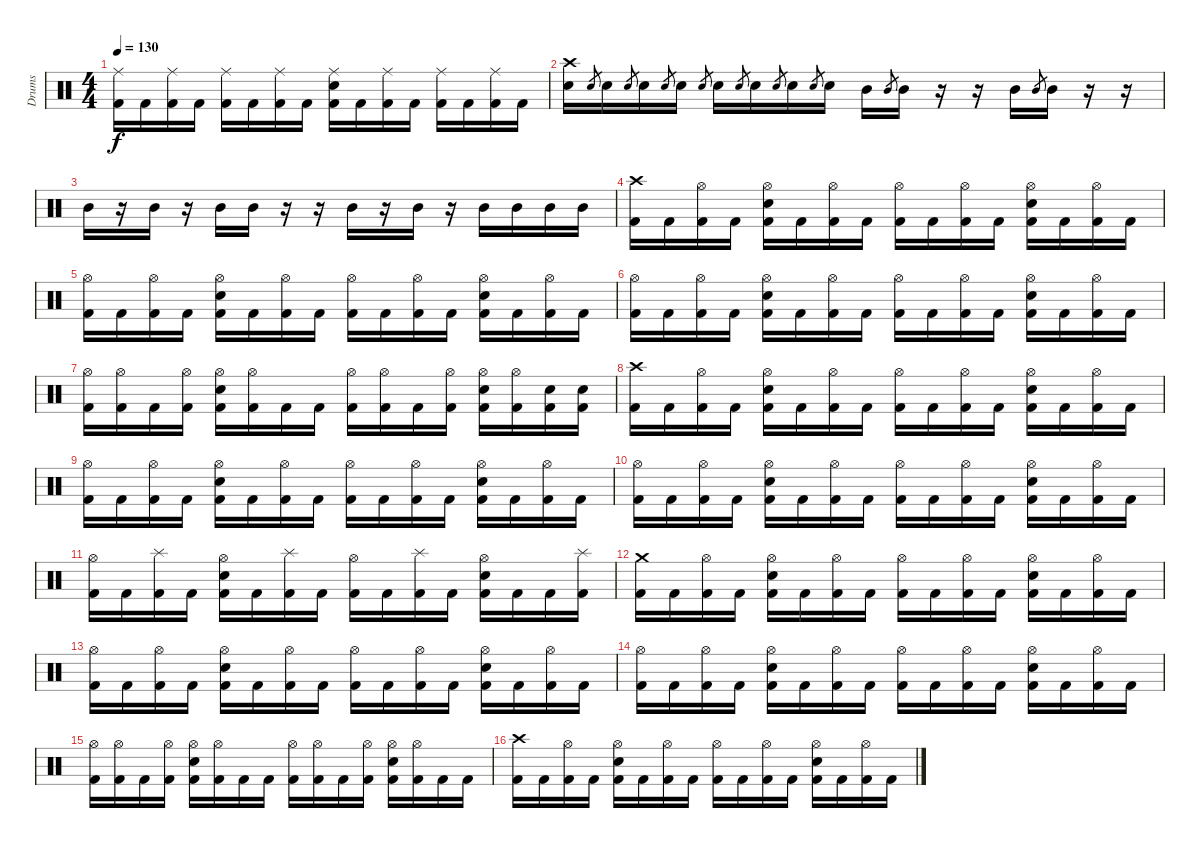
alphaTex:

\track ("Drums" "Drums") {instrument percussion}
\staff {score}
\articulation defaults
\ts (4 4)
\tempo 130
\clef neutral
\ks c
("Ride (middle)" "Kick (hit) 2").16{dy f} "Kick (hit) 2".16 ("Ride (middle)" "Kick (hit) 2").16 "Kick (hit) 2".16 ("Ride (middle)" "Kick (hit) 2").16 "Kick (hit) 2".16 ("Ride (middle)" "Kick (hit) 2").16 "Kick (hit) 2".16 ("Ride (middle)" "Electric Snare (hit)" "Kick (hit) 2").16 "Kick (hit) 2".16 ("Ride (middle)" "Kick (hit) 2").16 "Kick (hit) 2".16 ("Ride (middle)" "Kick (hit) 2").16 "Kick (hit) 2".16 ("Ride (middle)" "Kick (hit) 2").16 "Kick (hit) 2".16 |
("Crash high (hit)" "Electric Snare (hit)").16 "Electric Snare (hit)".8{gr} "Electric Snare (hit)".16 "Electric Snare (hit)".8{gr} "Electric Snare (hit)".16 "Electric Snare (hit)".8{gr} "Electric Snare (hit)".16 "Electric Snare (hit)".8{gr} "Electric Snare (hit)".16 "Electric Snare (hit)".8{gr} "Electric Snare (hit)".16 "Electric Snare (hit)".8{gr} "Electric Snare (hit)".16 "Electric Snare (hit)".8{gr} "Electric Snare (hit)".16 "Mid Tom (hit)".16 "Mid Tom (hit)".8{gr} "Mid Tom (hit)".16 r.16 r.16 "Mid Tom (hit)".16 "Mid Tom (hit)".8{gr} "Mid Tom (hit)".16 r.16 r.16 |
"Mid Tom (hit)".16 r.16 "Mid Tom (hit)".16 r.16 "Mid Tom (hit)".16 "Mid Tom (hit)".16 r.16 r.16 "Mid Tom (hit)".16 r.16 "Mid Tom (hit)".16 r.16 "Mid Tom (hit)".16 "Mid Tom (hit)".16 "Mid Tom (hit)".16 "Mid Tom (hit)".16 |
("Crash high (hit)" "Kick (hit) 2").16 "Kick (hit) 2".16 ("Hi-Hat (open)" "Kick (hit) 2").16 "Kick (hit) 2".16 ("Hi-Hat (open)" "Electric Snare (hit)" "Kick (hit) 2").16 "Kick (hit) 2".16 ("Hi-Hat (open)" "Kick (hit) 2").16 "Kick (hit) 2".16 ("Hi-Hat (open)" "Kick (hit) 2").16 "Kick (hit) 2".16 ("Hi-Hat (open)" "Kick (hit) 2").16 "Kick (hit) 2".16 ("Hi-Hat (open)" "Electric Snare (hit)" "Kick (hit) 2").16 "Kick (hit) 2".16 ("Hi-Hat (open)" "Kick (hit) 2").16 "Kick (hit) 2".16 |
("Hi-Hat (open)" "Kick (hit) 2").16 "Kick (hit) 2".16 ("Hi-Hat (open)" "Kick (hit) 2").16 "Kick (hit) 2".16 ("Hi-Hat (open)" "Electric Snare (hit)" "Kick (hit) 2").16 "Kick (hit) 2".16 ("Hi-Hat (open)" "Kick (hit) 2").16 "Kick (hit) 2".16 ("Hi-Hat (open)" "Kick (hit) 2").16 "Kick (hit) 2".16 ("Hi-Hat (open)" "Kick (hit) 2").16 "Kick (hit) 2".16 ("Hi-Hat (open)" "Electric Snare (hit)" "Kick (hit) 2").16 "Kick (hit) 2".16 ("Hi-Hat (open)" "Kick (hit) 2").16 "Kick (hit) 2".16 |
("Hi-Hat (open)" "Kick (hit) 2").16 "Kick (hit) 2".16 ("Hi-Hat (open)" "Kick (hit) 2").16 "Kick (hit) 2".16 ("Hi-Hat (open)" "Electric Snare (hit)" "Kick (hit) 2").16 "Kick (hit) 2".16 ("Hi-Hat (open)" "Kick (hit) 2").16 "Kick (hit) 2".16 ("Hi-Hat (open)" "Kick (hit) 2").16 "Kick (hit) 2".16 ("Hi-Hat (open)" "Kick (hit) 2").16 "Kick (hit) 2".16 ("Hi-Hat (open)" "Electric Snare (hit)" "Kick (hit) 2").16 "Kick (hit) 2".16 ("Hi-Hat (open)" "Kick (hit) 2").16 "Kick (hit) 2".16 |
("Hi-Hat (open)" "Kick (hit) 2").16 ("Hi-Hat (open)" "Kick (hit) 2").16 "Kick (hit) 2".16 ("Hi-Hat (open)" "Kick (hit) 2").16 ("Hi-Hat (open)" "Electric Snare (hit)" "Kick (hit) 2").16 ("Hi-Hat (open)" "Kick (hit) 2").16 "Kick (hit) 2".16 "Kick (hit) 2".16 ("Hi-Hat (open)" "Kick (hit) 2").16 ("Hi-Hat (open)" "Kick (hit) 2").16 "Kick (hit) 2".16 ("Hi-Hat (open)" "Kick (hit) 2").16 ("Hi-Hat (open)" "Electric Snare (hit)" "Kick (hit) 2").16 ("Hi-Hat (open)" "Kick (hit) 2").16 ("Electric Snare (hit)" "Kick (hit) 2").16 ("Electric Snare (hit)" "Kick (hit) 2").16 |
("Crash high (hit)" "Kick (hit) 2").16 "Kick (hit) 2".16 ("Hi-Hat (open)" "Kick (hit) 2").16 "Kick (hit) 2".16 ("Hi-Hat (open)" "Electric Snare (hit)" "Kick (hit) 2").16 "Kick (hit) 2".16 ("Hi-Hat (open)" "Kick (hit) 2").16 "Kick (hit) 2".16 ("Hi-Hat (open)" "Kick (hit) 2").16 "Kick (hit) 2".16 ("Hi-Hat (open)" "Kick (hit) 2").16 "Kick (hit) 2".16 ("Hi-Hat (open)" "Electric Snare (hit)" "Kick (hit) 2").16 "Kick (hit) 2".16 ("Hi-Hat (open)" "Kick (hit) 2").16 "Kick (hit) 2".16 |
("Hi-Hat (open)" "Kick (hit) 2").16 "Kick (hit) 2".16 ("Hi-Hat (open)" "Kick (hit) 2").16 "Kick (hit) 2".16 ("Hi-Hat (open)" "Electric Snare (hit)" "Kick (hit) 2").16 "Kick (hit) 2".16 ("Hi-Hat (open)" "Kick (hit) 2").16 "Kick (hit) 2".16 ("Hi-Hat (open)" "Kick (hit) 2").16 "Kick (hit) 2".16 ("Hi-Hat (open)" "Kick (hit) 2").16 "Kick (hit) 2".16 ("Hi-Hat (open)" "Electric Snare (hit)" "Kick (hit) 2").16 "Kick (hit) 2".16 ("Hi-Hat (open)" "Kick (hit) 2").16 "Kick (hit) 2".16 |
("Hi-Hat (open)" "Kick (hit) 2").16 "Kick (hit) 2".16 ("Hi-Hat (open)" "Kick (hit) 2").16 "Kick (hit) 2".16 ("Hi-Hat (open)" "Electric Snare (hit)" "Kick (hit) 2").16 "Kick (hit) 2".16 ("Hi-Hat (open)" "Kick (hit) 2").16 "Kick (hit) 2".16 ("Hi-Hat (open)" "Kick (hit) 2").16 "Kick (hit) 2".16 ("Hi-Hat (open)" "Kick (hit) 2").16 "Kick (hit) 2".16 ("Hi-Hat (open)" "Electric Snare (hit)" "Kick (hit) 2").16 "Kick (hit) 2".16 ("Hi-Hat (open)" "Kick (hit) 2").16 "Kick (hit) 2".16 |
("Hi-Hat (open)" "Kick (hit) 2").16 "Kick (hit) 2".16 ("Splash (hit)" "Kick (hit) 2").16 "Kick (hit) 2".16 ("Hi-Hat (open)" "Electric Snare (hit)" "Kick (hit) 2").16 "Kick (hit) 2".16 ("Splash (hit)" "Kick (hit) 2").16 "Kick (hit) 2".16 ("Hi-Hat (open)" "Kick (hit) 2").16 "Kick (hit) 2".16 ("Splash (hit)" "Kick (hit) 2").16 "Kick (hit) 2".16 ("Hi-Hat (open)" "Electric Snare (hit)" "Kick (hit) 2").16 "Kick (hit) 2".16 "Kick (hit) 2".16 ("Splash (hit)" "Kick (hit) 2").16 |
("Crash medium (hit)" "Kick (hit) 2").16 "Kick (hit) 2".16 ("Hi-Hat (open)" "Kick (hit) 2").16 "Kick (hit) 2".16 ("Hi-Hat (open)" "Electric Snare (hit)" "Kick (hit) 2").16 "Kick (hit) 2".16 ("Hi-Hat (open)" "Kick (hit) 2").16 "Kick (hit) 2".16 ("Hi-Hat (open)" "Kick (hit) 2").16 "Kick (hit) 2".16 ("Hi-Hat (open)" "Kick (hit) 2").16 "Kick (hit) 2".16 ("Hi-Hat (open)" "Electric Snare (hit)" "Kick (hit) 2").16 "Kick (hit) 2".16 ("Hi-Hat (open)" "Kick (hit) 2").16 "Kick (hit) 2".16 |
("Hi-Hat (open)" "Kick (hit) 2").16 "Kick (hit) 2".16 ("Hi-Hat (open)" "Kick (hit) 2").16 "Kick (hit) 2".16 ("Hi-Hat (open)" "Electric Snare (hit)" "Kick (hit) 2").16 "Kick (hit) 2".16 ("Hi-Hat (open)" "Kick (hit) 2").16 "Kick (hit) 2".16 ("Hi-Hat (open)" "Kick (hit) 2").16 "Kick (hit) 2".16 ("Hi-Hat (open)" "Kick (hit) 2").16 "Kick (hit) 2".16 ("Hi-Hat (open)" "Electric Snare (hit)" "Kick (hit) 2").16 "Kick (hit) 2".16 ("Hi-Hat (open)" "Kick (hit) 2").16 "Kick (hit) 2".16 |
("Hi-Hat (open)" "Kick (hit) 2").16 "Kick (hit) 2".16 ("Hi-Hat (open)" "Kick (hit) 2").16 "Kick (hit) 2".16 ("Hi-Hat (open)" "Electric Snare (hit)" "Kick (hit) 2").16 "Kick (hit) 2".16 ("Hi-Hat (open)" "Kick (hit) 2").16 "Kick (hit) 2".16 ("Hi-Hat (open)" "Kick (hit) 2").16 "Kick (hit) 2".16 ("Hi-Hat (open)" "Kick (hit) 2").16 "Kick (hit) 2".16 ("Hi-Hat (open)" "Electric Snare (hit)" "Kick (hit) 2").16 "Kick (hit) 2".16 ("Hi-Hat (open)" "Kick (hit) 2").16 "Kick (hit) 2".16 |
("Hi-Hat (open)" "Kick (hit) 2").16 ("Hi-Hat (open)" "Kick (hit) 2").16 "Kick (hit) 2".16 ("Hi-Hat (open)" "Kick (hit) 2").16 ("Hi-Hat (open)" "Electric Snare (hit)" "Kick (hit) 2").16 ("Hi-Hat (open)" "Kick (hit) 2").16 "Kick (hit) 2".16 "Kick (hit) 2".16 ("Hi-Hat (open)" "Kick (hit) 2").16 ("Hi-Hat (open)" "Kick (hit) 2").16 "Kick (hit) 2".16 ("Hi-Hat (open)" "Kick (hit) 2").16 ("Hi-Hat (open)" "Electric Snare (hit)" "Kick (hit) 2").16 ("Hi-Hat (open)" "Kick (hit) 2").16 "Kick (hit) 2".16 "Kick (hit) 2".16 |
("Crash high (hit)" "Kick (hit) 2").16 "Kick (hit) 2".16 ("Hi-Hat (open)" "Kick (hit) 2").16 "Kick (hit) 2".16 ("Hi-Hat (open)" "Electric Snare (hit)" "Kick (hit) 2").16 "Kick (hit) 2".16 ("Hi-Hat (open)" "Kick (hit) 2").16 "Kick (hit) 2".16 ("Hi-Hat (open)" "Kick (hit) 2").16 "Kick (hit) 2".16 ("Hi-Hat (open)" "Kick (hit) 2").16 "Kick (hit) 2".16 ("Hi-Hat (open)" "Electric Snare (hit)" "Kick (hit) 2").16 "Kick (hit) 2".16 ("Hi-Hat (open)" "Kick (hit) 2").16 "Kick (hit) 2".16
